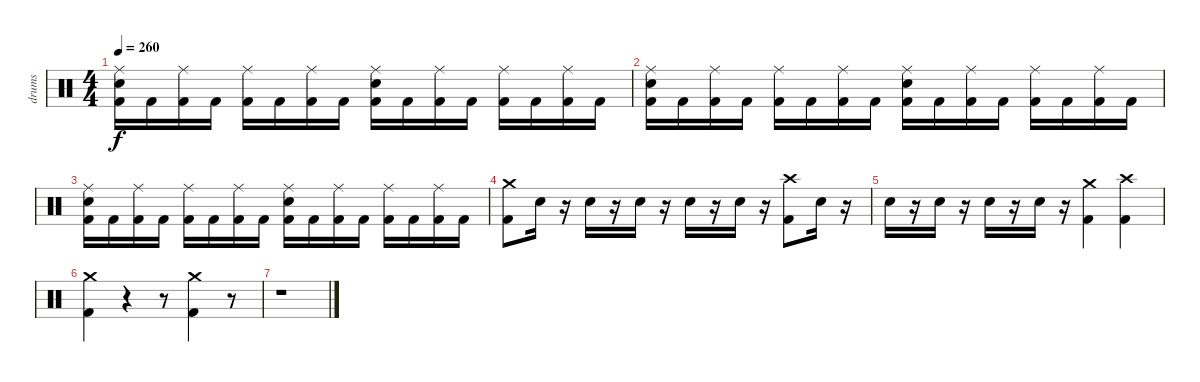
\track ("drums" "drums") {instrument percussion}
\staff {score}
\articulation defaults
\ts (4 4)
\tempo 260
\clef neutral
\ks c
("Ride (middle)" "Electric Snare (hit)" "Kick (hit) 2").16{dy f} "Kick (hit) 2".16 ("Ride (middle)" "Kick (hit) 2").16 "Kick (hit) 2".16 ("Ride (middle)" "Kick (hit) 2").16 "Kick (hit) 2".16 ("Ride (middle)" "Kick (hit) 2").16 "Kick (hit) 2".16 ("Ride (middle)" "Electric Snare (hit)" "Kick (hit) 2").16 "Kick (hit) 2".16 ("Ride (middle)" "Kick (hit) 2").16 "Kick (hit) 2".16 ("Ride (middle)" "Kick (hit) 2").16 "Kick (hit) 2".16 ("Ride (middle)" "Kick (hit) 2").16 "Kick (hit) 2".16 |
("Ride (middle)" "Electric Snare (hit)" "Kick (hit) 2").16 "Kick (hit) 2".16 ("Ride (middle)" "Kick (hit) 2").16 "Kick (hit) 2".16 ("Ride (middle)" "Kick (hit) 2").16 "Kick (hit) 2".16 ("Ride (middle)" "Kick (hit) 2").16 "Kick (hit) 2".16 ("Ride (middle)" "Electric Snare (hit)" "Kick (hit) 2").16 "Kick (hit) 2".16 ("Ride (middle)" "Kick (hit) 2").16 "Kick (hit) 2".16 ("Ride (middle)" "Kick (hit) 2").16 "Kick (hit) 2".16 ("Ride (middle)" "Kick (hit) 2").16 "Kick (hit) 2".16 |
("Ride (middle)" "Electric Snare (hit)" "Kick (hit) 2").16 "Kick (hit) 2".16 ("Ride (middle)" "Kick (hit) 2").16 "Kick (hit) 2".16 ("Ride (middle)" "Kick (hit) 2").16 "Kick (hit) 2".16 ("Ride (middle)" "Kick (hit) 2").16 "Kick (hit) 2".16 ("Ride (middle)" "Electric Snare (hit)" "Kick (hit) 2").16 "Kick (hit) 2".16 ("Ride (middle)" "Kick (hit) 2").16 "Kick (hit) 2".16 ("Ride (middle)" "Kick (hit) 2").16 "Kick (hit) 2".16 ("Ride (middle)" "Kick (hit) 2").16 "Kick (hit) 2".16 |
("Crash medium (hit)" "Kick (hit) 2").8 "Electric Snare (hit)".16 r.16 "Electric Snare (hit)".16 r.16 "Electric Snare (hit)".16 r.16 "Electric Snare (hit)".16 r.16 "Electric Snare (hit)".16 r.16 ("Crash high (hit)" "Kick (hit) 2").8 "Electric Snare (hit)".16 r.16 |
"Electric Snare (hit)".16 r.16 "Electric Snare (hit)".16 r.16 "Electric Snare (hit)".16 r.16 "Electric Snare (hit)".16 r.16 ("Crash medium (hit)" "Kick (hit) 2").4 ("Crash high (hit)" "Kick (hit) 2").4 |
("Crash medium (hit)" "Kick (hit) 2").4 r.4 r.8 ("Crash medium (hit)" "Kick (hit) 2").4 r.8 |
r.1
